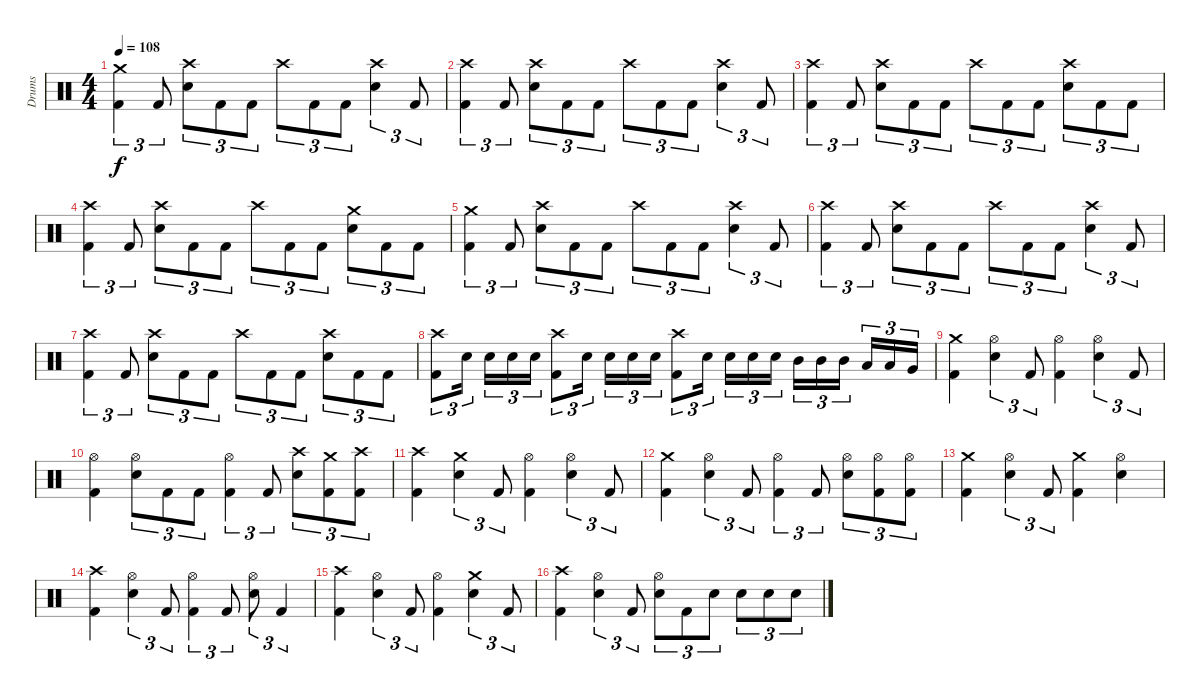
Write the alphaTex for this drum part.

\track ("Drums" "Drums") {instrument percussion}
\staff {score}
\articulation defaults
\ts (4 4)
\tempo 108
\clef neutral
\ks c
("Crash medium (hit)" "Kick (hit) 2").4{tu (3 2) dy f} "Kick (hit) 2".8{tu (3 2)} ("Crash high (hit)" "Electric Snare (hit)").8{tu (3 2)} "Kick (hit) 2".8{tu (3 2)} "Kick (hit) 2".8{tu (3 2)} "Crash high (hit)".8{tu (3 2)} "Kick (hit) 2".8{tu (3 2)} "Kick (hit) 2".8{tu (3 2)} ("Crash high (hit)" "Electric Snare (hit)").4{tu (3 2)} "Kick (hit) 2".8{tu (3 2)} |
("Crash high (hit)" "Kick (hit) 2").4{tu (3 2)} "Kick (hit) 2".8{tu (3 2)} ("Crash high (hit)" "Electric Snare (hit)").8{tu (3 2)} "Kick (hit) 2".8{tu (3 2)} "Kick (hit) 2".8{tu (3 2)} "Crash high (hit)".8{tu (3 2)} "Kick (hit) 2".8{tu (3 2)} "Kick (hit) 2".8{tu (3 2)} ("Crash high (hit)" "Electric Snare (hit)").4{tu (3 2)} "Kick (hit) 2".8{tu (3 2)} |
("Crash high (hit)" "Kick (hit) 2").4{tu (3 2)} "Kick (hit) 2".8{tu (3 2)} ("Crash high (hit)" "Electric Snare (hit)").8{tu (3 2)} "Kick (hit) 2".8{tu (3 2)} "Kick (hit) 2".8{tu (3 2)} "Crash high (hit)".8{tu (3 2)} "Kick (hit) 2".8{tu (3 2)} "Kick (hit) 2".8{tu (3 2)} ("Crash high (hit)" "Electric Snare (hit)").8{tu (3 2)} "Kick (hit) 2".8{tu (3 2)} "Kick (hit) 2".8{tu (3 2)} |
("Crash high (hit)" "Kick (hit) 2").4{tu (3 2)} "Kick (hit) 2".8{tu (3 2)} ("Crash high (hit)" "Electric Snare (hit)").8{tu (3 2)} "Kick (hit) 2".8{tu (3 2)} "Kick (hit) 2".8{tu (3 2)} "Crash high (hit)".8{tu (3 2)} "Kick (hit) 2".8{tu (3 2)} "Kick (hit) 2".8{tu (3 2)} ("Crash medium (hit)" "Electric Snare (hit)").8{tu (3 2)} "Kick (hit) 2".8{tu (3 2)} "Kick (hit) 2".8{tu (3 2)} |
("Crash medium (hit)" "Kick (hit) 2").4{tu (3 2)} "Kick (hit) 2".8{tu (3 2)} ("Crash high (hit)" "Electric Snare (hit)").8{tu (3 2)} "Kick (hit) 2".8{tu (3 2)} "Kick (hit) 2".8{tu (3 2)} "Crash high (hit)".8{tu (3 2)} "Kick (hit) 2".8{tu (3 2)} "Kick (hit) 2".8{tu (3 2)} ("Crash high (hit)" "Electric Snare (hit)").4{tu (3 2)} "Kick (hit) 2".8{tu (3 2)} |
("Crash high (hit)" "Kick (hit) 2").4{tu (3 2)} "Kick (hit) 2".8{tu (3 2)} ("Crash high (hit)" "Electric Snare (hit)").8{tu (3 2)} "Kick (hit) 2".8{tu (3 2)} "Kick (hit) 2".8{tu (3 2)} "Crash high (hit)".8{tu (3 2)} "Kick (hit) 2".8{tu (3 2)} "Kick (hit) 2".8{tu (3 2)} ("Crash high (hit)" "Electric Snare (hit)").4{tu (3 2)} "Kick (hit) 2".8{tu (3 2)} |
("Crash high (hit)" "Kick (hit) 2").4{tu (3 2)} "Kick (hit) 2".8{tu (3 2)} ("Crash high (hit)" "Electric Snare (hit)").8{tu (3 2)} "Kick (hit) 2".8{tu (3 2)} "Kick (hit) 2".8{tu (3 2)} "Crash high (hit)".8{tu (3 2)} "Kick (hit) 2".8{tu (3 2)} "Kick (hit) 2".8{tu (3 2)} ("Crash high (hit)" "Electric Snare (hit)").8{tu (3 2)} "Kick (hit) 2".8{tu (3 2)} "Kick (hit) 2".8{tu (3 2)} |
("Crash high (hit)" "Kick (hit) 2").8{tu (3 2)} "Electric Snare (hit)".16{tu (3 2) beam splitsecondary} "Electric Snare (hit)".16{tu (3 2)} "Electric Snare (hit)".16{tu (3 2)} "Electric Snare (hit)".16{tu (3 2)} ("Crash high (hit)" "Kick (hit) 2").8{tu (3 2)} "Electric Snare (hit)".16{tu (3 2) beam splitsecondary} "Electric Snare (hit)".16{tu (3 2)} "Electric Snare (hit)".16{tu (3 2)} "Electric Snare (hit)".16{tu (3 2)} ("Crash high (hit)" "Kick (hit) 2").8{tu (3 2)} "Electric Snare (hit)".16{tu (3 2) beam splitsecondary} "Electric Snare (hit)".16{tu (3 2)} "Electric Snare (hit)".16{tu (3 2)} "Electric Snare (hit)".16{tu (3 2)} "Mid Tom (hit)".16{tu (3 2)} "Mid Tom (hit)".16{tu (3 2)} "Mid Tom (hit)".16{tu (3 2) beam splitsecondary} "Low Tom (hit)".16{tu (3 2)} "Low Tom (hit)".16{tu (3 2)} "Very Low Tom (hit)".16{tu (3 2)} |
("Crash medium (hit)" "Kick (hit) 2").4 ("Hi-Hat (open)" "Electric Snare (hit)").4{tu (3 2)} "Kick (hit) 2".8{tu (3 2)} ("Hi-Hat (open)" "Kick (hit) 2").4 ("Hi-Hat (open)" "Electric Snare (hit)").4{tu (3 2)} "Kick (hit) 2".8{tu (3 2)} |
("Hi-Hat (open)" "Kick (hit) 2").4 ("Hi-Hat (open)" "Electric Snare (hit)").8{tu (3 2)} "Kick (hit) 2".8{tu (3 2)} "Kick (hit) 2".8{tu (3 2)} ("Hi-Hat (open)" "Kick (hit) 2").4{tu (3 2)} "Kick (hit) 2".8{tu (3 2)} ("Crash high (hit)" "Electric Snare (hit)").8{tu (3 2)} ("Crash medium (hit)" "Kick (hit) 2").8{tu (3 2)} ("Crash high (hit)" "Kick (hit) 2").8{tu (3 2)} |
("Crash high (hit)" "Kick (hit) 2").4 ("Crash medium (hit)" "Electric Snare (hit)").4{tu (3 2)} "Kick (hit) 2".8{tu (3 2)} ("Hi-Hat (open)" "Kick (hit) 2").4 ("Hi-Hat (open)" "Electric Snare (hit)").4{tu (3 2)} "Kick (hit) 2".8{tu (3 2)} |
("Crash medium (hit)" "Kick (hit) 2").4 ("Hi-Hat (open)" "Electric Snare (hit)").4{tu (3 2)} "Kick (hit) 2".8{tu (3 2)} ("Hi-Hat (open)" "Kick (hit) 2").4{tu (3 2)} "Kick (hit) 2".8{tu (3 2)} ("Hi-Hat (open)" "Electric Snare (hit)").8{tu (3 2)} ("Hi-Hat (open)" "Kick (hit) 2").8{tu (3 2)} ("Hi-Hat (open)" "Kick (hit) 2").8{tu (3 2)} |
("Crash medium (hit)" "Kick (hit) 2").4 ("Hi-Hat (open)" "Electric Snare (hit)").4{tu (3 2)} "Kick (hit) 2".8{tu (3 2)} ("Crash medium (hit)" "Kick (hit) 2").4 ("Hi-Hat (open)" "Electric Snare (hit)").4 |
("Crash high (hit)" "Kick (hit) 2").4 ("Hi-Hat (open)" "Electric Snare (hit)").4{tu (3 2)} "Kick (hit) 2".8{tu (3 2)} ("Hi-Hat (open)" "Kick (hit) 2").4{tu (3 2)} "Kick (hit) 2".8{tu (3 2)} ("Hi-Hat (open)" "Electric Snare (hit)").8{tu (3 2)} "Kick (hit) 2".4{tu (3 2)} |
("Crash high (hit)" "Kick (hit) 2").4 ("Hi-Hat (open)" "Electric Snare (hit)").4{tu (3 2)} "Kick (hit) 2".8{tu (3 2)} ("Hi-Hat (open)" "Kick (hit) 2").4 ("Crash medium (hit)" "Electric Snare (hit)").4{tu (3 2)} "Kick (hit) 2".8{tu (3 2)} |
("Crash high (hit)" "Kick (hit) 2").4 ("Hi-Hat (open)" "Electric Snare (hit)").4{tu (3 2)} "Kick (hit) 2".8{tu (3 2)} ("Hi-Hat (open)" "Electric Snare (hit)").8{tu (3 2)} "Kick (hit) 2".8{tu (3 2)} "Electric Snare (hit)".8{tu (3 2)} "Electric Snare (hit)".8{tu (3 2)} "Electric Snare (hit)".8{tu (3 2)} "Electric Snare (hit)".8{tu (3 2)}
